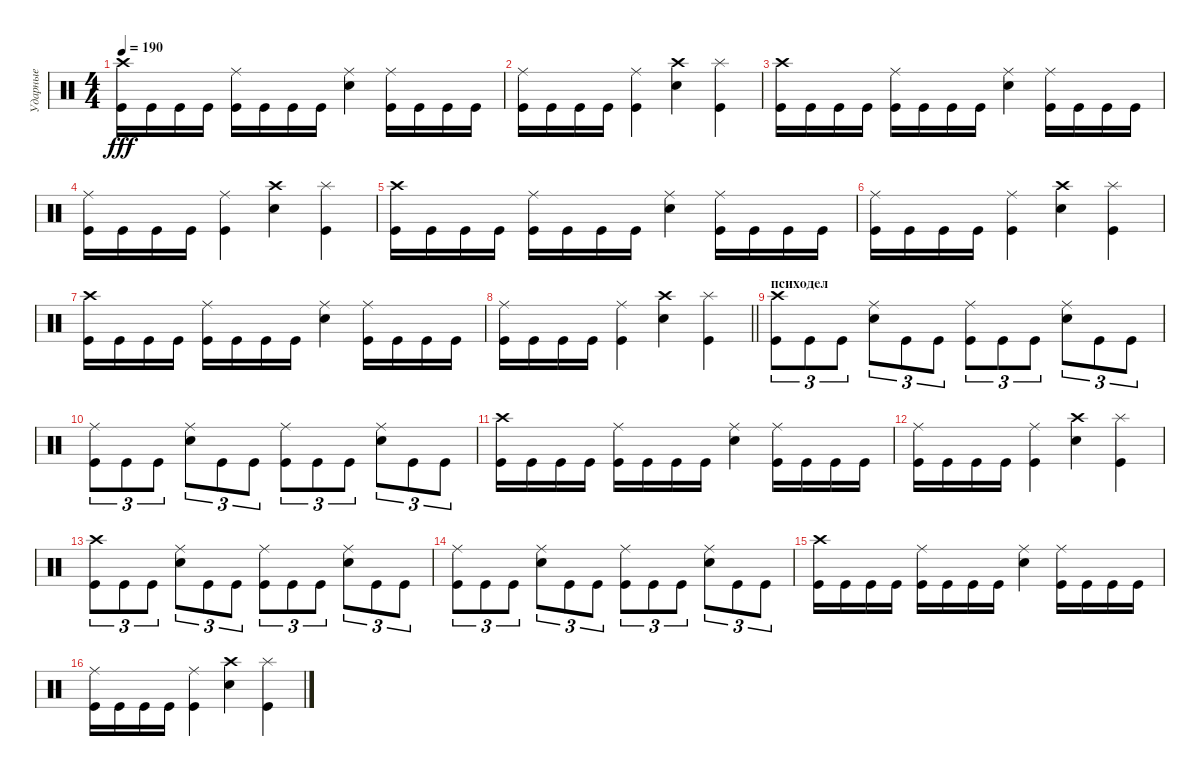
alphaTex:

\track ("Ударные" "Ударные") {instrument percussion}
\staff {score}
\articulation defaults
\ts (4 4)
\tempo 190
\clef neutral
\ks c
("Crash high (hit)" "Kick (hit)").16{dy fff} "Kick (hit)".16 "Kick (hit)".16 "Kick (hit)".16 ("Ride (middle)" "Kick (hit)").16 "Kick (hit)".16 "Kick (hit)".16 "Kick (hit)".16 ("Ride (middle)" "Snare (hit) 2").4 ("Ride (middle)" "Kick (hit)").16 "Kick (hit)".16 "Kick (hit)".16 "Kick (hit)".16 |
("Ride (middle)" "Kick (hit)").16 "Kick (hit)".16 "Kick (hit)".16 "Kick (hit)".16 ("Ride (middle)" "Kick (hit)").4 ("Crash high (hit)" "Snare (hit) 2").4 ("Splash (hit)" "Kick (hit)").4 |
("Crash high (hit)" "Kick (hit)").16 "Kick (hit)".16 "Kick (hit)".16 "Kick (hit)".16 ("Ride (middle)" "Kick (hit)").16 "Kick (hit)".16 "Kick (hit)".16 "Kick (hit)".16 ("Ride (middle)" "Snare (hit) 2").4 ("Ride (middle)" "Kick (hit)").16 "Kick (hit)".16 "Kick (hit)".16 "Kick (hit)".16 |
("Ride (middle)" "Kick (hit)").16 "Kick (hit)".16 "Kick (hit)".16 "Kick (hit)".16 ("Ride (middle)" "Kick (hit)").4 ("Crash high (hit)" "Snare (hit) 2").4 ("Splash (hit)" "Kick (hit)").4 |
("Crash high (hit)" "Kick (hit)").16 "Kick (hit)".16 "Kick (hit)".16 "Kick (hit)".16 ("Ride (middle)" "Kick (hit)").16 "Kick (hit)".16 "Kick (hit)".16 "Kick (hit)".16 ("Ride (middle)" "Snare (hit) 2").4 ("Ride (middle)" "Kick (hit)").16 "Kick (hit)".16 "Kick (hit)".16 "Kick (hit)".16 |
("Ride (middle)" "Kick (hit)").16 "Kick (hit)".16 "Kick (hit)".16 "Kick (hit)".16 ("Ride (middle)" "Kick (hit)").4 ("Crash high (hit)" "Snare (hit) 2").4 ("Splash (hit)" "Kick (hit)").4 |
("Crash high (hit)" "Kick (hit)").16 "Kick (hit)".16 "Kick (hit)".16 "Kick (hit)".16 ("Ride (middle)" "Kick (hit)").16 "Kick (hit)".16 "Kick (hit)".16 "Kick (hit)".16 ("Ride (middle)" "Snare (hit) 2").4 ("Ride (middle)" "Kick (hit)").16 "Kick (hit)".16 "Kick (hit)".16 "Kick (hit)".16 |
\barLineRight lightlight
("Ride (middle)" "Kick (hit)").16 "Kick (hit)".16 "Kick (hit)".16 "Kick (hit)".16 ("Ride (middle)" "Kick (hit)").4 ("Crash high (hit)" "Snare (hit) 2").4 ("Splash (hit)" "Kick (hit)").4 |
\section ("" "психодел")
("Crash high (hit)" "Kick (hit)").8{tu (3 2)} "Kick (hit)".8{tu (3 2)} "Kick (hit)".8{tu (3 2)} ("Ride (middle)" "Snare (hit) 2").8{tu (3 2)} "Kick (hit)".8{tu (3 2)} "Kick (hit)".8{tu (3 2)} ("Ride (middle)" "Kick (hit)").8{tu (3 2)} "Kick (hit)".8{tu (3 2)} "Kick (hit)".8{tu (3 2)} ("Ride (middle)" "Snare (hit) 2").8{tu (3 2)} "Kick (hit)".8{tu (3 2)} "Kick (hit)".8{tu (3 2)} |
("Ride (middle)" "Kick (hit)").8{tu (3 2)} "Kick (hit)".8{tu (3 2)} "Kick (hit)".8{tu (3 2)} ("Ride (middle)" "Snare (hit) 2").8{tu (3 2)} "Kick (hit)".8{tu (3 2)} "Kick (hit)".8{tu (3 2)} ("Ride (middle)" "Kick (hit)").8{tu (3 2)} "Kick (hit)".8{tu (3 2)} "Kick (hit)".8{tu (3 2)} ("Ride (middle)" "Snare (hit) 2").8{tu (3 2)} "Kick (hit)".8{tu (3 2)} "Kick (hit)".8{tu (3 2)} |
("Crash high (hit)" "Kick (hit)").16 "Kick (hit)".16 "Kick (hit)".16 "Kick (hit)".16 ("Ride (middle)" "Kick (hit)").16 "Kick (hit)".16 "Kick (hit)".16 "Kick (hit)".16 ("Ride (middle)" "Snare (hit) 2").4 ("Ride (middle)" "Kick (hit)").16 "Kick (hit)".16 "Kick (hit)".16 "Kick (hit)".16 |
("Ride (middle)" "Kick (hit)").16 "Kick (hit)".16 "Kick (hit)".16 "Kick (hit)".16 ("Ride (middle)" "Kick (hit)").4 ("Crash high (hit)" "Snare (hit) 2").4 ("Splash (hit)" "Kick (hit)").4 |
("Crash high (hit)" "Kick (hit)").8{tu (3 2)} "Kick (hit)".8{tu (3 2)} "Kick (hit)".8{tu (3 2)} ("Ride (middle)" "Snare (hit) 2").8{tu (3 2)} "Kick (hit)".8{tu (3 2)} "Kick (hit)".8{tu (3 2)} ("Ride (middle)" "Kick (hit)").8{tu (3 2)} "Kick (hit)".8{tu (3 2)} "Kick (hit)".8{tu (3 2)} ("Ride (middle)" "Snare (hit) 2").8{tu (3 2)} "Kick (hit)".8{tu (3 2)} "Kick (hit)".8{tu (3 2)} |
("Ride (middle)" "Kick (hit)").8{tu (3 2)} "Kick (hit)".8{tu (3 2)} "Kick (hit)".8{tu (3 2)} ("Ride (middle)" "Snare (hit) 2").8{tu (3 2)} "Kick (hit)".8{tu (3 2)} "Kick (hit)".8{tu (3 2)} ("Ride (middle)" "Kick (hit)").8{tu (3 2)} "Kick (hit)".8{tu (3 2)} "Kick (hit)".8{tu (3 2)} ("Ride (middle)" "Snare (hit) 2").8{tu (3 2)} "Kick (hit)".8{tu (3 2)} "Kick (hit)".8{tu (3 2)} |
("Crash high (hit)" "Kick (hit)").16 "Kick (hit)".16 "Kick (hit)".16 "Kick (hit)".16 ("Ride (middle)" "Kick (hit)").16 "Kick (hit)".16 "Kick (hit)".16 "Kick (hit)".16 ("Ride (middle)" "Snare (hit) 2").4 ("Ride (middle)" "Kick (hit)").16 "Kick (hit)".16 "Kick (hit)".16 "Kick (hit)".16 |
("Ride (middle)" "Kick (hit)").16 "Kick (hit)".16 "Kick (hit)".16 "Kick (hit)".16 ("Ride (middle)" "Kick (hit)").4 ("Crash high (hit)" "Snare (hit) 2").4 ("Splash (hit)" "Kick (hit)").4
